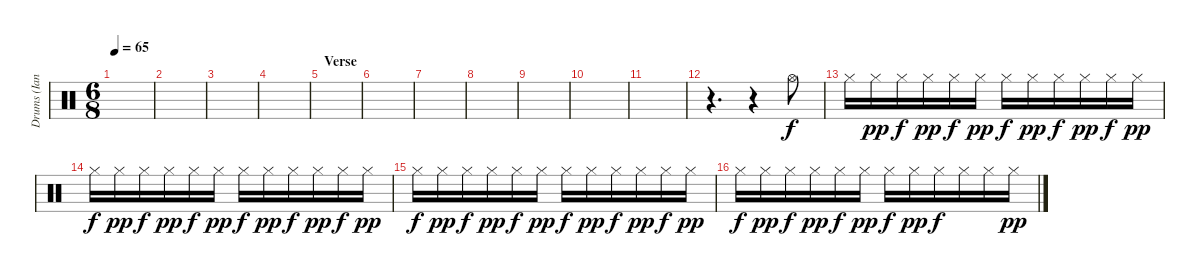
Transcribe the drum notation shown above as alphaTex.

\track ("Drums (Ian Mosley)" "Drums (Ian") {instrument percussion}
\staff {score}
\articulation defaults
\ts (6 8)
\tempo 65
\clef neutral
\ks c
|
|
|
|
\section ("" "Verse")
|
|
|
|
|
|
|
r.4{d} r.4 "Hi-Hat (open)".8 |
"Hi-Hat (closed)".16 "Hi-Hat (closed)".16{dy pp} "Hi-Hat (closed)".16{dy f} "Hi-Hat (closed)".16{dy pp} "Hi-Hat (closed)".16{dy f} "Hi-Hat (closed)".16{dy pp} "Hi-Hat (closed)".16{dy f} "Hi-Hat (closed)".16{dy pp} "Hi-Hat (closed)".16{dy f} "Hi-Hat (closed)".16{dy pp} "Hi-Hat (closed)".16{dy f} "Hi-Hat (closed)".16{dy pp} |
"Hi-Hat (closed)".16{dy f} "Hi-Hat (closed)".16{dy pp} "Hi-Hat (closed)".16{dy f} "Hi-Hat (closed)".16{dy pp} "Hi-Hat (closed)".16{dy f} "Hi-Hat (closed)".16{dy pp} "Hi-Hat (closed)".16{dy f} "Hi-Hat (closed)".16{dy pp} "Hi-Hat (closed)".16{dy f} "Hi-Hat (closed)".16{dy pp} "Hi-Hat (closed)".16{dy f} "Hi-Hat (closed)".16{dy pp} |
"Hi-Hat (closed)".16{dy f} "Hi-Hat (closed)".16{dy pp} "Hi-Hat (closed)".16{dy f} "Hi-Hat (closed)".16{dy pp} "Hi-Hat (closed)".16{dy f} "Hi-Hat (closed)".16{dy pp} "Hi-Hat (closed)".16{dy f} "Hi-Hat (closed)".16{dy pp} "Hi-Hat (closed)".16{dy f} "Hi-Hat (closed)".16{dy pp} "Hi-Hat (closed)".16{dy f} "Hi-Hat (closed)".16{dy pp} |
"Hi-Hat (closed)".16{dy f} "Hi-Hat (closed)".16{dy pp} "Hi-Hat (closed)".16{dy f} "Hi-Hat (closed)".16{dy pp} "Hi-Hat (closed)".16{dy f} "Hi-Hat (closed)".16{dy pp} "Hi-Hat (closed)".16{dy f} "Hi-Hat (closed)".16{dy pp} "Hi-Hat (closed)".16{dy f} "Hi-Hat (closed)".16 "Hi-Hat (closed)".16 "Hi-Hat (closed)".16{dy pp}
